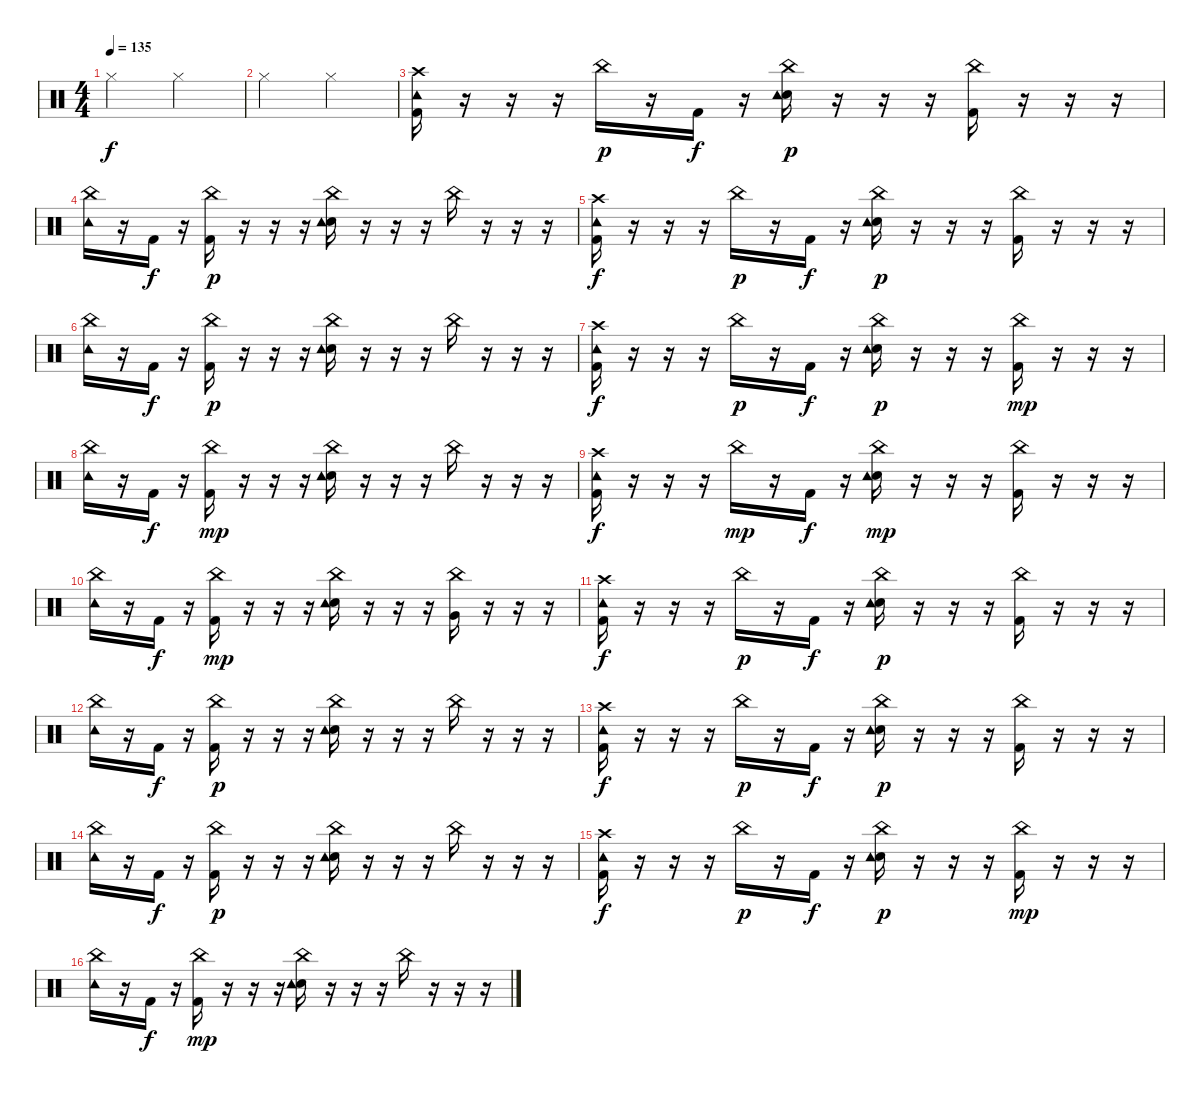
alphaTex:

\track (" " " ") {instrument percussion}
\staff {score}
\articulation defaults
\ts (4 4)
\tempo 135
\clef neutral
\ks c "Hi-Hat (closed)".2{dy f} "Hi-Hat (closed)".2
|
"Hi-Hat (closed)".2 "Hi-Hat (closed)".2 |
("Crash high (hit)" "Tambourine (hit)" "Kick (hit) 2").16 r.16 r.16 r.16 "China (hit)".16{dy p} r.16 "Kick (hit) 2".16{dy f} r.16 ("China (hit)" "Electric Snare (hit)" "Tambourine (hit)").16{dy p} r.16 r.16 r.16 ("China (hit)" "Kick (hit) 2").16 r.16 r.16 r.16 |
("China (hit)" "Tambourine (hit)").16 r.16 "Kick (hit) 2".16{dy f} r.16 ("China (hit)" "Kick (hit) 2").16{dy p} r.16 r.16 r.16 ("China (hit)" "Electric Snare (hit)" "Tambourine (hit)").16 r.16 r.16 r.16 "China (hit)".16 r.16 r.16 r.16 |
("Crash high (hit)" "Tambourine (hit)" "Kick (hit) 2").16{dy f} r.16 r.16 r.16 "China (hit)".16{dy p} r.16 "Kick (hit) 2".16{dy f} r.16 ("China (hit)" "Electric Snare (hit)" "Tambourine (hit)").16{dy p} r.16 r.16 r.16 ("China (hit)" "Kick (hit) 2").16 r.16 r.16 r.16 |
("China (hit)" "Tambourine (hit)").16 r.16 "Kick (hit) 2".16{dy f} r.16 ("China (hit)" "Kick (hit) 2").16{dy p} r.16 r.16 r.16 ("China (hit)" "Electric Snare (hit)" "Tambourine (hit)").16 r.16 r.16 r.16 "China (hit)".16 r.16 r.16 r.16 |
("Crash high (hit)" "Tambourine (hit)" "Kick (hit) 2").16{dy f} r.16 r.16 r.16 "China (hit)".16{dy p} r.16 "Kick (hit) 2".16{dy f} r.16 ("China (hit)" "Electric Snare (hit)" "Tambourine (hit)").16{dy p} r.16 r.16 r.16 ("China (hit)" "Kick (hit) 2").16{dy mp} r.16 r.16 r.16 |
("China (hit)" "Tambourine (hit)").16 r.16 "Kick (hit) 2".16{dy f} r.16 ("China (hit)" "Kick (hit) 2").16{dy mp} r.16 r.16 r.16 ("China (hit)" "Electric Snare (hit)" "Tambourine (hit)").16 r.16 r.16 r.16 "China (hit)".16 r.16 r.16 r.16 |
("Crash high (hit)" "Tambourine (hit)" "Kick (hit) 2").16{dy f} r.16 r.16 r.16 "China (hit)".16{dy mp} r.16 "Kick (hit) 2".16{dy f} r.16 ("China (hit)" "Electric Snare (hit)" "Tambourine (hit)").16{dy mp} r.16 r.16 r.16 ("China (hit)" "Kick (hit) 2").16 r.16 r.16 r.16 |
("China (hit)" "Tambourine (hit)").16 r.16 "Kick (hit) 2".16{dy f} r.16 ("China (hit)" "Kick (hit) 2").16{dy mp} r.16 r.16 r.16 ("China (hit)" "Electric Snare (hit)" "Tambourine (hit)").16 r.16 r.16 r.16 ("China (hit)" "Very Low Tom (hit)").16 r.16 r.16 r.16 |
("Crash high (hit)" "Tambourine (hit)" "Kick (hit) 2").16{dy f} r.16 r.16 r.16 "China (hit)".16{dy p} r.16 "Kick (hit) 2".16{dy f} r.16 ("China (hit)" "Electric Snare (hit)" "Tambourine (hit)").16{dy p} r.16 r.16 r.16 ("China (hit)" "Kick (hit) 2").16 r.16 r.16 r.16 |
("China (hit)" "Tambourine (hit)").16 r.16 "Kick (hit) 2".16{dy f} r.16 ("China (hit)" "Kick (hit) 2").16{dy p} r.16 r.16 r.16 ("China (hit)" "Electric Snare (hit)" "Tambourine (hit)").16 r.16 r.16 r.16 "China (hit)".16 r.16 r.16 r.16 |
("Crash high (hit)" "Tambourine (hit)" "Kick (hit) 2").16{dy f} r.16 r.16 r.16 "China (hit)".16{dy p} r.16 "Kick (hit) 2".16{dy f} r.16 ("China (hit)" "Electric Snare (hit)" "Tambourine (hit)").16{dy p} r.16 r.16 r.16 ("China (hit)" "Kick (hit) 2").16 r.16 r.16 r.16 |
("China (hit)" "Tambourine (hit)").16 r.16 "Kick (hit) 2".16{dy f} r.16 ("China (hit)" "Kick (hit) 2").16{dy p} r.16 r.16 r.16 ("China (hit)" "Electric Snare (hit)" "Tambourine (hit)").16 r.16 r.16 r.16 "China (hit)".16 r.16 r.16 r.16 |
("Crash high (hit)" "Tambourine (hit)" "Kick (hit) 2").16{dy f} r.16 r.16 r.16 "China (hit)".16{dy p} r.16 "Kick (hit) 2".16{dy f} r.16 ("China (hit)" "Electric Snare (hit)" "Tambourine (hit)").16{dy p} r.16 r.16 r.16 ("China (hit)" "Kick (hit) 2").16{dy mp} r.16 r.16 r.16 |
("China (hit)" "Tambourine (hit)").16 r.16 "Kick (hit) 2".16{dy f} r.16 ("China (hit)" "Kick (hit) 2").16{dy mp} r.16 r.16 r.16 ("China (hit)" "Electric Snare (hit)" "Tambourine (hit)").16 r.16 r.16 r.16 "China (hit)".16 r.16 r.16 r.16
